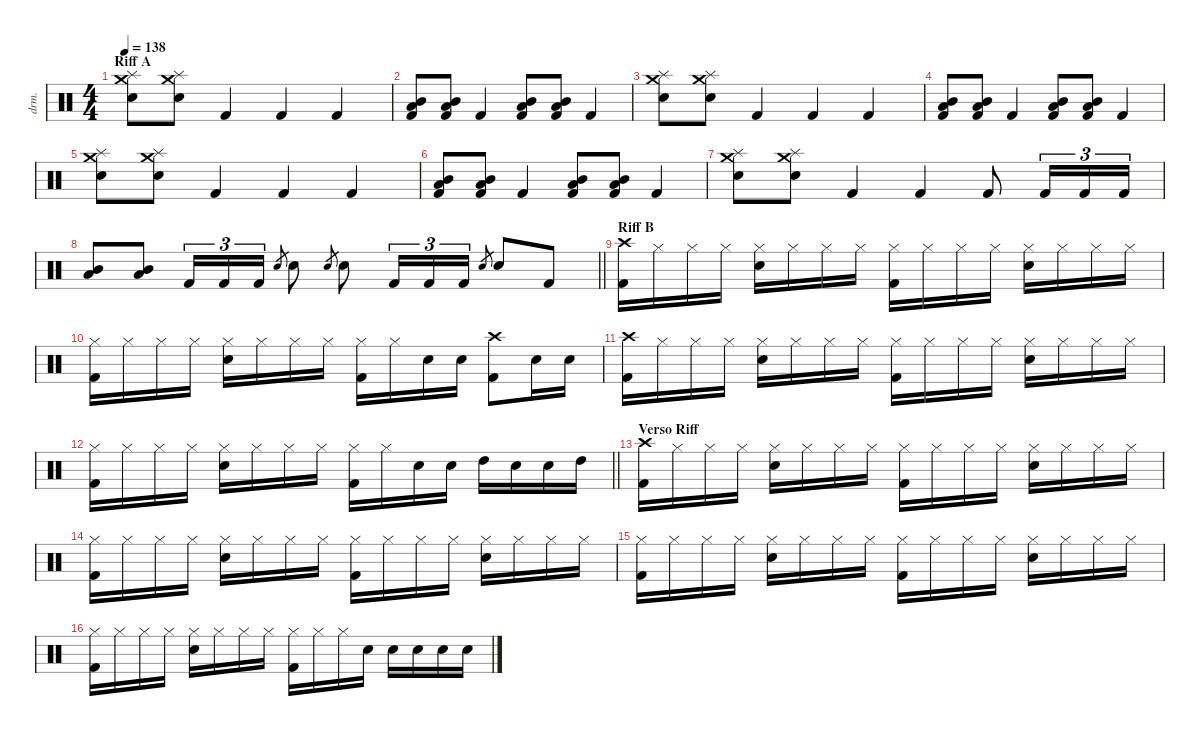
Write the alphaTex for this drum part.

\defaultSystemsLayout 4
\hideDynamics
\bracketExtendMode nobrackets
\otherSystemsTrackNameOrientation horizontal
\track ("Lee Kerslake" "drm.") {instrument percussion}
\staff {score}
\articulation defaults
\ts (4 4)
\section ("" "Riff A")
\tempo 138
\clef neutral
\ks c
("Snare (hit) 2" "Crash medium (hit)" "Splash (hit)").8{dy f beam Down} ("Snare (hit) 2" "Crash medium (hit)" "Splash (hit)").8{beam Down} "Kick (hit) 2".4{beam Up} "Kick (hit) 2".4{beam Up} "Kick (hit) 2".4{beam Up} |
("Mid Tom (hit)" "Low Tom (hit)" "Kick (hit) 2").8{beam Up} ("Mid Tom (hit)" "Low Tom (hit)" "Kick (hit) 2").8{beam Up} "Kick (hit) 2".4{beam Up} ("Mid Tom (hit)" "Low Tom (hit)" "Kick (hit) 2").8{beam Up} ("Mid Tom (hit)" "Low Tom (hit)" "Kick (hit) 2").8{beam Up} "Kick (hit) 2".4{beam Up} |
("Snare (hit) 2" "Crash medium (hit)" "Splash (hit)").8{beam Down} ("Snare (hit) 2" "Crash medium (hit)" "Splash (hit)").8{beam Down} "Kick (hit) 2".4{beam Up} "Kick (hit) 2".4{beam Up} "Kick (hit) 2".4{beam Up} |
("Mid Tom (hit)" "Low Tom (hit)" "Kick (hit) 2").8{beam Up} ("Mid Tom (hit)" "Low Tom (hit)" "Kick (hit) 2").8{beam Up} "Kick (hit) 2".4{beam Up} ("Mid Tom (hit)" "Low Tom (hit)" "Kick (hit) 2").8{beam Up} ("Mid Tom (hit)" "Low Tom (hit)" "Kick (hit) 2").8{beam Up} "Kick (hit) 2".4{beam Up} |
("Snare (hit) 2" "Crash medium (hit)" "Splash (hit)").8{beam Down} ("Snare (hit) 2" "Crash medium (hit)" "Splash (hit)").8{beam Down} "Kick (hit) 2".4{beam Up} "Kick (hit) 2".4{beam Up} "Kick (hit) 2".4{beam Up} |
("Mid Tom (hit)" "Low Tom (hit)" "Kick (hit) 2").8{beam Up} ("Mid Tom (hit)" "Low Tom (hit)" "Kick (hit) 2").8{beam Up} "Kick (hit) 2".4{beam Up} ("Mid Tom (hit)" "Low Tom (hit)" "Kick (hit) 2").8{beam Up} ("Mid Tom (hit)" "Low Tom (hit)" "Kick (hit) 2").8{beam Up} "Kick (hit) 2".4{beam Up} |
("Snare (hit) 2" "Crash medium (hit)" "Splash (hit)").8{beam Down} ("Snare (hit) 2" "Crash medium (hit)" "Splash (hit)").8{beam Down} "Kick (hit) 2".4{beam Up} "Kick (hit) 2".4{beam Up} "Kick (hit) 2".8{beam Up} "Kick (hit) 2".16{tu (3 2) beam Up} "Kick (hit) 2".16{tu (3 2) beam Up} "Kick (hit) 2".16{tu (3 2) beam Up} |
\barLineRight lightlight
("Mid Tom (hit)" "Low Tom (hit)").8{beam Up} ("Mid Tom (hit)" "Low Tom (hit)").8{beam Up} "Kick (hit) 2".16{tu (3 2) beam Up} "Kick (hit) 2".16{tu (3 2) beam Up} "Kick (hit) 2".16{tu (3 2) beam Up} "Snare (hit) 2".8{gr dy mf beam Up} "Snare (hit) 2".8{dy f beam Down} "Snare (hit) 2".8{gr dy mf beam Up} "Snare (hit) 2".8{dy f beam Down} "Kick (hit) 2".16{tu (3 2) beam Up} "Kick (hit) 2".16{tu (3 2) beam Up} "Kick (hit) 2".16{tu (3 2) beam Up} "Snare (hit) 2".8{gr dy mf beam Up} "Snare (hit) 2".8{dy f beam Up} "Kick (hit) 2".8{beam Up} |
\section ("" "Riff B")
("Crash high (hit)" "Kick (hit) 2").16{beam Down} "Hi-Hat (closed)".16{beam Down} "Hi-Hat (closed)".16{beam Down} "Hi-Hat (closed)".16{beam Down} ("Hi-Hat (closed)" "Snare (hit) 2").16{beam Down} "Hi-Hat (closed)".16{beam Down} "Hi-Hat (closed)".16{beam Down} "Hi-Hat (closed)".16{beam Down} ("Hi-Hat (closed)" "Kick (hit) 2").16{beam Down} "Hi-Hat (closed)".16{beam Down} "Hi-Hat (closed)".16{beam Down} "Hi-Hat (closed)".16{beam Down} ("Hi-Hat (closed)" "Snare (hit) 2").16{beam Down} "Hi-Hat (closed)".16{beam Down} "Hi-Hat (closed)".16{beam Down} "Hi-Hat (closed)".16{beam Down} |
("Hi-Hat (closed)" "Kick (hit) 2").16{beam Down} "Hi-Hat (closed)".16{beam Down} "Hi-Hat (closed)".16{beam Down} "Hi-Hat (closed)".16{beam Down} ("Hi-Hat (closed)" "Snare (hit) 2").16{beam Down} "Hi-Hat (closed)".16{beam Down} "Hi-Hat (closed)".16{beam Down} "Hi-Hat (closed)".16{beam Down} ("Hi-Hat (closed)" "Kick (hit) 2").16{beam Down} "Hi-Hat (closed)".16{beam Down} "Snare (hit) 2".16{beam Down} "Snare (hit) 2".16{beam Down} ("Crash high (hit)" "Kick (hit) 2").8{beam Down} "Snare (hit) 2".16{beam Down} "Snare (hit) 2".16{beam Down} |
("Crash high (hit)" "Kick (hit) 2").16{beam Down} "Hi-Hat (closed)".16{beam Down} "Hi-Hat (closed)".16{beam Down} "Hi-Hat (closed)".16{beam Down} ("Hi-Hat (closed)" "Snare (hit) 2").16{beam Down} "Hi-Hat (closed)".16{beam Down} "Hi-Hat (closed)".16{beam Down} "Hi-Hat (closed)".16{beam Down} ("Hi-Hat (closed)" "Kick (hit) 2").16{beam Down} "Hi-Hat (closed)".16{beam Down} "Hi-Hat (closed)".16{beam Down} "Hi-Hat (closed)".16{beam Down} ("Hi-Hat (closed)" "Snare (hit) 2").16{beam Down} "Hi-Hat (closed)".16{beam Down} "Hi-Hat (closed)".16{beam Down} "Hi-Hat (closed)".16{beam Down} |
\barLineRight lightlight
("Hi-Hat (closed)" "Kick (hit) 2").16{beam Down} "Hi-Hat (closed)".16{beam Down} "Hi-Hat (closed)".16{beam Down} "Hi-Hat (closed)".16{beam Down} ("Hi-Hat (closed)" "Snare (hit) 2").16{beam Down} "Hi-Hat (closed)".16{beam Down} "Hi-Hat (closed)".16{beam Down} "Hi-Hat (closed)".16{beam Down} ("Hi-Hat (closed)" "Kick (hit) 2").16{beam Down} "Hi-Hat (closed)".16{beam Down} "Snare (hit) 2".16{beam Down} "Snare (hit) 2".16{beam Down} "High Tom (hit)".16{beam Down} "Snare (hit) 2".16{beam Down} "Snare (hit) 2".16{beam Down} "High Tom (hit)".16{beam Down} |
\section ("" "Verso Riff")
("Crash high (hit)" "Kick (hit) 2").16{beam Down} "Hi-Hat (closed)".16{beam Down} "Hi-Hat (closed)".16{beam Down} "Hi-Hat (closed)".16{beam Down} ("Hi-Hat (closed)" "Snare (hit) 2").16{beam Down} "Hi-Hat (closed)".16{beam Down} "Hi-Hat (closed)".16{beam Down} "Hi-Hat (closed)".16{beam Down} ("Hi-Hat (closed)" "Kick (hit) 2").16{beam Down} "Hi-Hat (closed)".16{beam Down} "Hi-Hat (closed)".16{beam Down} "Hi-Hat (closed)".16{beam Down} ("Hi-Hat (closed)" "Snare (hit) 2").16{beam Down} "Hi-Hat (closed)".16{beam Down} "Hi-Hat (closed)".16{beam Down} "Hi-Hat (closed)".16{beam Down} |
("Hi-Hat (closed)" "Kick (hit) 2").16{beam Down} "Hi-Hat (closed)".16{beam Down} "Hi-Hat (closed)".16{beam Down} "Hi-Hat (closed)".16{beam Down} ("Hi-Hat (closed)" "Snare (hit) 2").16{beam Down} "Hi-Hat (closed)".16{beam Down} "Hi-Hat (closed)".16{beam Down} "Hi-Hat (closed)".16{beam Down} ("Hi-Hat (closed)" "Kick (hit) 2").16{beam Down} "Hi-Hat (closed)".16{beam Down} "Hi-Hat (closed)".16{beam Down} "Hi-Hat (closed)".16{beam Down} ("Hi-Hat (closed)" "Snare (hit) 2").16{beam Down} "Hi-Hat (closed)".16{beam Down} "Hi-Hat (closed)".16{beam Down} "Hi-Hat (closed)".16{beam Down} |
("Hi-Hat (closed)" "Kick (hit) 2").16{beam Down} "Hi-Hat (closed)".16{beam Down} "Hi-Hat (closed)".16{beam Down} "Hi-Hat (closed)".16{beam Down} ("Hi-Hat (closed)" "Snare (hit) 2").16{beam Down} "Hi-Hat (closed)".16{beam Down} "Hi-Hat (closed)".16{beam Down} "Hi-Hat (closed)".16{beam Down} ("Hi-Hat (closed)" "Kick (hit) 2").16{beam Down} "Hi-Hat (closed)".16{beam Down} "Hi-Hat (closed)".16{beam Down} "Hi-Hat (closed)".16{beam Down} ("Hi-Hat (closed)" "Snare (hit) 2").16{beam Down} "Hi-Hat (closed)".16{beam Down} "Hi-Hat (closed)".16{beam Down} "Hi-Hat (closed)".16{beam Down} |
("Hi-Hat (closed)" "Kick (hit) 2").16{beam Down} "Hi-Hat (closed)".16{beam Down} "Hi-Hat (closed)".16{beam Down} "Hi-Hat (closed)".16{beam Down} ("Hi-Hat (closed)" "Snare (hit) 2").16{beam Down} "Hi-Hat (closed)".16{beam Down} "Hi-Hat (closed)".16{beam Down} "Hi-Hat (closed)".16{beam Down} ("Hi-Hat (closed)" "Kick (hit) 2").16{beam Down} "Hi-Hat (closed)".16{beam Down} "Hi-Hat (closed)".16{beam Down} "Snare (hit) 2".16{beam Down} "Snare (hit) 2".16{beam Down} "Snare (hit) 2".16{beam Down} "Snare (hit) 2".16{beam Down} "Snare (hit) 2".16{beam Down}
